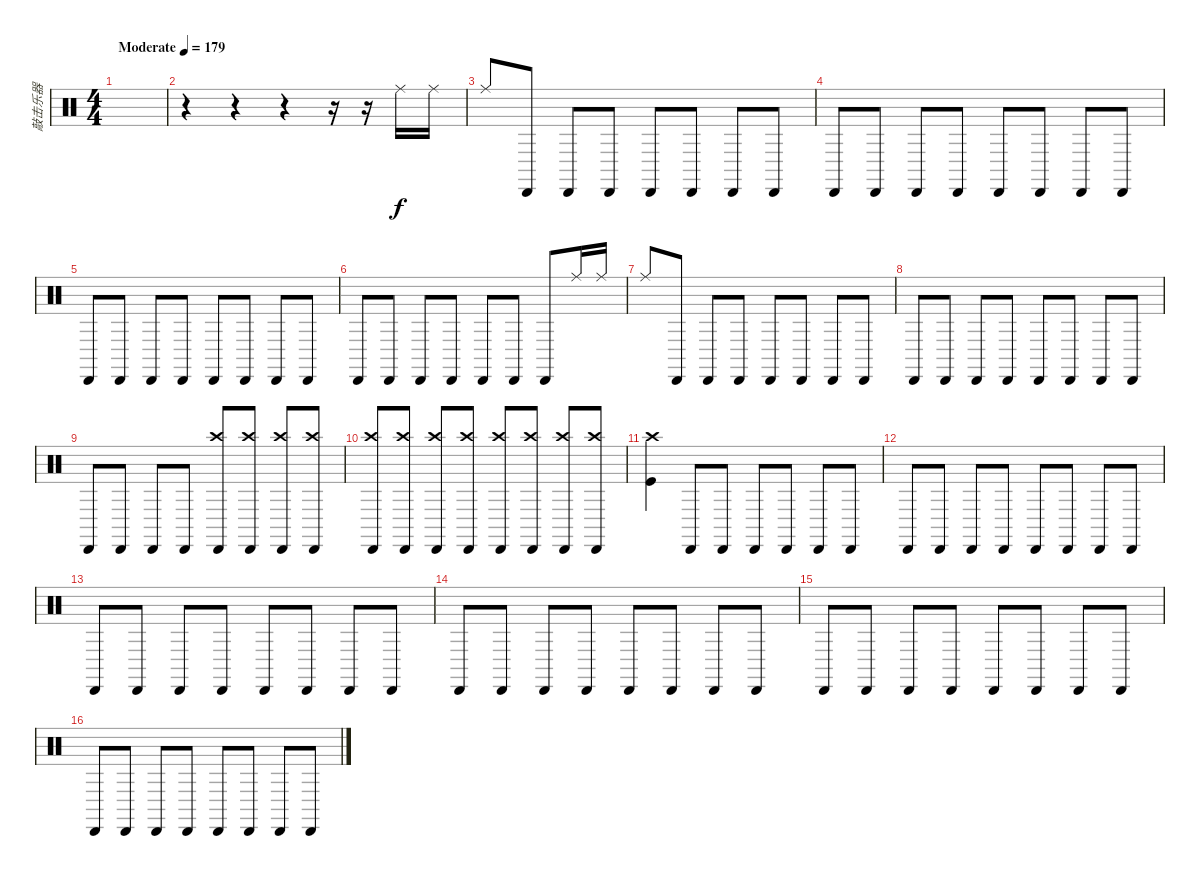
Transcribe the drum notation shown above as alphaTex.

\track ("敲击乐器" "敲击乐器") {instrument percussion}
\staff {score}
\articulation defaults
\ts (4 4)
\tempo (179 "Moderate")
\clef neutral
\ks c
|
r.4 r.4 r.4 r.16 r.16 "Ride (middle)".16 "Ride (middle)".16 |
"Ride (middle)".8 "Cabasa (hit)".8 "Cabasa (hit)".8 "Cabasa (hit)".8 "Cabasa (hit)".8 "Cabasa (hit)".8 "Cabasa (hit)".8 "Cabasa (hit)".8 |
"Cabasa (hit)".8 "Cabasa (hit)".8 "Cabasa (hit)".8 "Cabasa (hit)".8 "Cabasa (hit)".8 "Cabasa (hit)".8 "Cabasa (hit)".8 "Cabasa (hit)".8 |
"Cabasa (hit)".8 "Cabasa (hit)".8 "Cabasa (hit)".8 "Cabasa (hit)".8 "Cabasa (hit)".8 "Cabasa (hit)".8 "Cabasa (hit)".8 "Cabasa (hit)".8 |
"Cabasa (hit)".8 "Cabasa (hit)".8 "Cabasa (hit)".8 "Cabasa (hit)".8 "Cabasa (hit)".8 "Cabasa (hit)".8 "Cabasa (hit)".8 "Ride (middle)".16 "Ride (middle)".16 |
"Ride (middle)".8 "Cabasa (hit)".8 "Cabasa (hit)".8 "Cabasa (hit)".8 "Cabasa (hit)".8 "Cabasa (hit)".8 "Cabasa (hit)".8 "Cabasa (hit)".8 |
"Cabasa (hit)".8 "Cabasa (hit)".8 "Cabasa (hit)".8 "Cabasa (hit)".8 "Cabasa (hit)".8 "Cabasa (hit)".8 "Cabasa (hit)".8 "Cabasa (hit)".8 |
"Cabasa (hit)".8 "Cabasa (hit)".8 "Cabasa (hit)".8 "Cabasa (hit)".8 ("Crash high (hit)" "Cabasa (hit)").8 ("Crash high (hit)" "Cabasa (hit)").8 ("Crash high (hit)" "Cabasa (hit)").8 ("Crash high (hit)" "Cabasa (hit)").8 |
("Crash high (hit)" "Cabasa (hit)").8 ("Crash high (hit)" "Cabasa (hit)").8 ("Crash high (hit)" "Cabasa (hit)").8 ("Crash high (hit)" "Cabasa (hit)").8 ("Crash high (hit)" "Cabasa (hit)").8 ("Crash high (hit)" "Cabasa (hit)").8 ("Crash high (hit)" "Cabasa (hit)").8 ("Crash high (hit)" "Cabasa (hit)").8 |
("Crash high (hit)" "Kick (hit)").4 "Cabasa (hit)".8 "Cabasa (hit)".8 "Cabasa (hit)".8 "Cabasa (hit)".8 "Cabasa (hit)".8 "Cabasa (hit)".8 |
"Cabasa (hit)".8 "Cabasa (hit)".8 "Cabasa (hit)".8 "Cabasa (hit)".8 "Cabasa (hit)".8 "Cabasa (hit)".8 "Cabasa (hit)".8 "Cabasa (hit)".8 |
"Cabasa (hit)".8 "Cabasa (hit)".8 "Cabasa (hit)".8 "Cabasa (hit)".8 "Cabasa (hit)".8 "Cabasa (hit)".8 "Cabasa (hit)".8 "Cabasa (hit)".8 |
"Cabasa (hit)".8 "Cabasa (hit)".8 "Cabasa (hit)".8 "Cabasa (hit)".8 "Cabasa (hit)".8 "Cabasa (hit)".8 "Cabasa (hit)".8 "Cabasa (hit)".8 |
"Cabasa (hit)".8 "Cabasa (hit)".8 "Cabasa (hit)".8 "Cabasa (hit)".8 "Cabasa (hit)".8 "Cabasa (hit)".8 "Cabasa (hit)".8 "Cabasa (hit)".8 |
"Cabasa (hit)".8 "Cabasa (hit)".8 "Cabasa (hit)".8 "Cabasa (hit)".8 "Cabasa (hit)".8 "Cabasa (hit)".8 "Cabasa (hit)".8 "Cabasa (hit)".8
